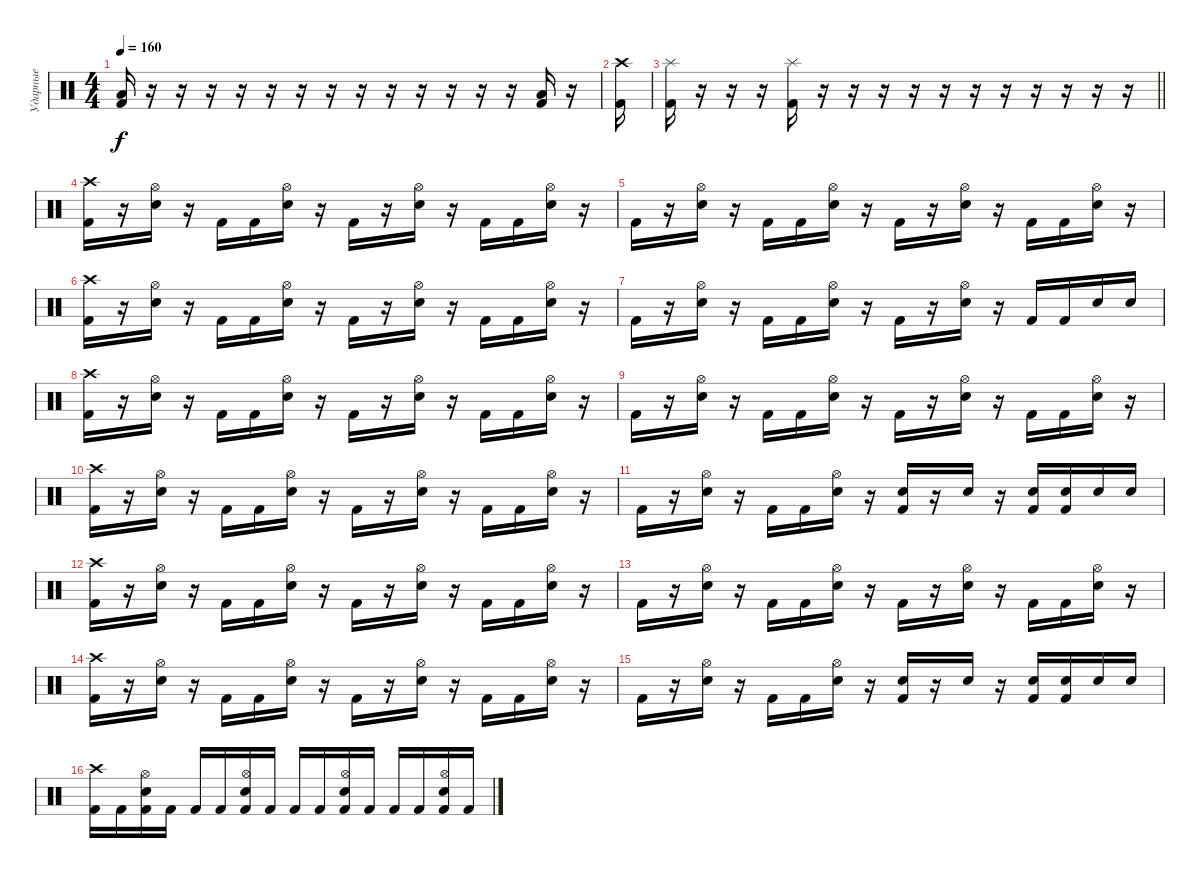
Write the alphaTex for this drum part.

\track ("Ударные" "Ударные") {instrument percussion}
\staff {score}
\articulation defaults
\ts (4 4)
\tempo 160
\clef neutral
\ks c
("Low Tom (hit)" "Kick (hit) 2").16{dy f} r.16 r.16 r.16 r.16 r.16 r.16 r.16 r.16 r.16 r.16 r.16 r.16 r.16 ("Low Tom (hit)" "Kick (hit) 2").16 r.16 |
("Crash high (hit)" "Kick (hit) 2").16 |
\barLineRight lightlight
("Splash (hit)" "Kick (hit) 2").16 r.16 r.16 r.16 ("Splash (hit)" "Kick (hit) 2").16 r.16 r.16 r.16 r.16 r.16 r.16 r.16 r.16 r.16 r.16 r.16 |
\section ("" "")
("Crash high (hit)" "Kick (hit) 2").16 r.16 ("Hi-Hat (open)" "Electric Snare (hit)").16 r.16 "Kick (hit) 2".16 "Kick (hit) 2".16 ("Hi-Hat (open)" "Electric Snare (hit)").16 r.16 "Kick (hit) 2".16 r.16 ("Hi-Hat (open)" "Electric Snare (hit)").16 r.16 "Kick (hit) 2".16 "Kick (hit) 2".16 ("Hi-Hat (open)" "Electric Snare (hit)").16 r.16 |
"Kick (hit) 2".16 r.16 ("Hi-Hat (open)" "Electric Snare (hit)").16 r.16 "Kick (hit) 2".16 "Kick (hit) 2".16 ("Hi-Hat (open)" "Electric Snare (hit)").16 r.16 "Kick (hit) 2".16 r.16 ("Hi-Hat (open)" "Electric Snare (hit)").16 r.16 "Kick (hit) 2".16 "Kick (hit) 2".16 ("Hi-Hat (open)" "Electric Snare (hit)").16 r.16 |
("Crash high (hit)" "Kick (hit) 2").16 r.16 ("Hi-Hat (open)" "Electric Snare (hit)").16 r.16 "Kick (hit) 2".16 "Kick (hit) 2".16 ("Hi-Hat (open)" "Electric Snare (hit)").16 r.16 "Kick (hit) 2".16 r.16 ("Hi-Hat (open)" "Electric Snare (hit)").16 r.16 "Kick (hit) 2".16 "Kick (hit) 2".16 ("Hi-Hat (open)" "Electric Snare (hit)").16 r.16 |
"Kick (hit) 2".16 r.16 ("Hi-Hat (open)" "Electric Snare (hit)").16 r.16 "Kick (hit) 2".16 "Kick (hit) 2".16 ("Hi-Hat (open)" "Electric Snare (hit)").16 r.16 "Kick (hit) 2".16 r.16 ("Hi-Hat (open)" "Electric Snare (hit)").16 r.16 "Kick (hit) 2".16 "Kick (hit) 2".16 "Electric Snare (hit)".16 "Electric Snare (hit)".16 |
("Crash high (hit)" "Kick (hit) 2").16 r.16 ("Hi-Hat (open)" "Electric Snare (hit)").16 r.16 "Kick (hit) 2".16 "Kick (hit) 2".16 ("Hi-Hat (open)" "Electric Snare (hit)").16 r.16 "Kick (hit) 2".16 r.16 ("Hi-Hat (open)" "Electric Snare (hit)").16 r.16 "Kick (hit) 2".16 "Kick (hit) 2".16 ("Hi-Hat (open)" "Electric Snare (hit)").16 r.16 |
"Kick (hit) 2".16 r.16 ("Hi-Hat (open)" "Electric Snare (hit)").16 r.16 "Kick (hit) 2".16 "Kick (hit) 2".16 ("Hi-Hat (open)" "Electric Snare (hit)").16 r.16 "Kick (hit) 2".16 r.16 ("Hi-Hat (open)" "Electric Snare (hit)").16 r.16 "Kick (hit) 2".16 "Kick (hit) 2".16 ("Hi-Hat (open)" "Electric Snare (hit)").16 r.16 |
("Crash high (hit)" "Kick (hit) 2").16 r.16 ("Hi-Hat (open)" "Electric Snare (hit)").16 r.16 "Kick (hit) 2".16 "Kick (hit) 2".16 ("Hi-Hat (open)" "Electric Snare (hit)").16 r.16 "Kick (hit) 2".16 r.16 ("Hi-Hat (open)" "Electric Snare (hit)").16 r.16 "Kick (hit) 2".16 "Kick (hit) 2".16 ("Hi-Hat (open)" "Electric Snare (hit)").16 r.16 |
"Kick (hit) 2".16 r.16 ("Hi-Hat (open)" "Electric Snare (hit)").16 r.16 "Kick (hit) 2".16 "Kick (hit) 2".16 ("Hi-Hat (open)" "Electric Snare (hit)").16 r.16 ("Electric Snare (hit)" "Kick (hit) 2").16 r.16 "Electric Snare (hit)".16 r.16 ("Electric Snare (hit)" "Kick (hit) 2").16 ("Electric Snare (hit)" "Kick (hit) 2").16 "Electric Snare (hit)".16 "Electric Snare (hit)".16 |
("Crash high (hit)" "Kick (hit) 2").16 r.16 ("Hi-Hat (open)" "Electric Snare (hit)").16 r.16 "Kick (hit) 2".16 "Kick (hit) 2".16 ("Hi-Hat (open)" "Electric Snare (hit)").16 r.16 "Kick (hit) 2".16 r.16 ("Hi-Hat (open)" "Electric Snare (hit)").16 r.16 "Kick (hit) 2".16 "Kick (hit) 2".16 ("Hi-Hat (open)" "Electric Snare (hit)").16 r.16 |
"Kick (hit) 2".16 r.16 ("Hi-Hat (open)" "Electric Snare (hit)").16 r.16 "Kick (hit) 2".16 "Kick (hit) 2".16 ("Hi-Hat (open)" "Electric Snare (hit)").16 r.16 "Kick (hit) 2".16 r.16 ("Hi-Hat (open)" "Electric Snare (hit)").16 r.16 "Kick (hit) 2".16 "Kick (hit) 2".16 ("Hi-Hat (open)" "Electric Snare (hit)").16 r.16 |
("Crash high (hit)" "Kick (hit) 2").16 r.16 ("Hi-Hat (open)" "Electric Snare (hit)").16 r.16 "Kick (hit) 2".16 "Kick (hit) 2".16 ("Hi-Hat (open)" "Electric Snare (hit)").16 r.16 "Kick (hit) 2".16 r.16 ("Hi-Hat (open)" "Electric Snare (hit)").16 r.16 "Kick (hit) 2".16 "Kick (hit) 2".16 ("Hi-Hat (open)" "Electric Snare (hit)").16 r.16 |
"Kick (hit) 2".16 r.16 ("Hi-Hat (open)" "Electric Snare (hit)").16 r.16 "Kick (hit) 2".16 "Kick (hit) 2".16 ("Hi-Hat (open)" "Electric Snare (hit)").16 r.16 ("Electric Snare (hit)" "Kick (hit) 2").16 r.16 "Electric Snare (hit)".16 r.16 ("Electric Snare (hit)" "Kick (hit) 2").16 ("Electric Snare (hit)" "Kick (hit) 2").16 "Electric Snare (hit)".16 "Electric Snare (hit)".16 |
("Crash high (hit)" "Kick (hit) 2").16 "Kick (hit) 2".16 ("Hi-Hat (open)" "Electric Snare (hit)" "Kick (hit) 2").16 "Kick (hit) 2".16 "Kick (hit) 2".16 "Kick (hit) 2".16 ("Hi-Hat (open)" "Electric Snare (hit)" "Kick (hit) 2").16 "Kick (hit) 2".16 "Kick (hit) 2".16 "Kick (hit) 2".16 ("Hi-Hat (open)" "Electric Snare (hit)" "Kick (hit) 2").16 "Kick (hit) 2".16 "Kick (hit) 2".16 "Kick (hit) 2".16 ("Hi-Hat (open)" "Electric Snare (hit)" "Kick (hit) 2").16 "Kick (hit) 2".16
